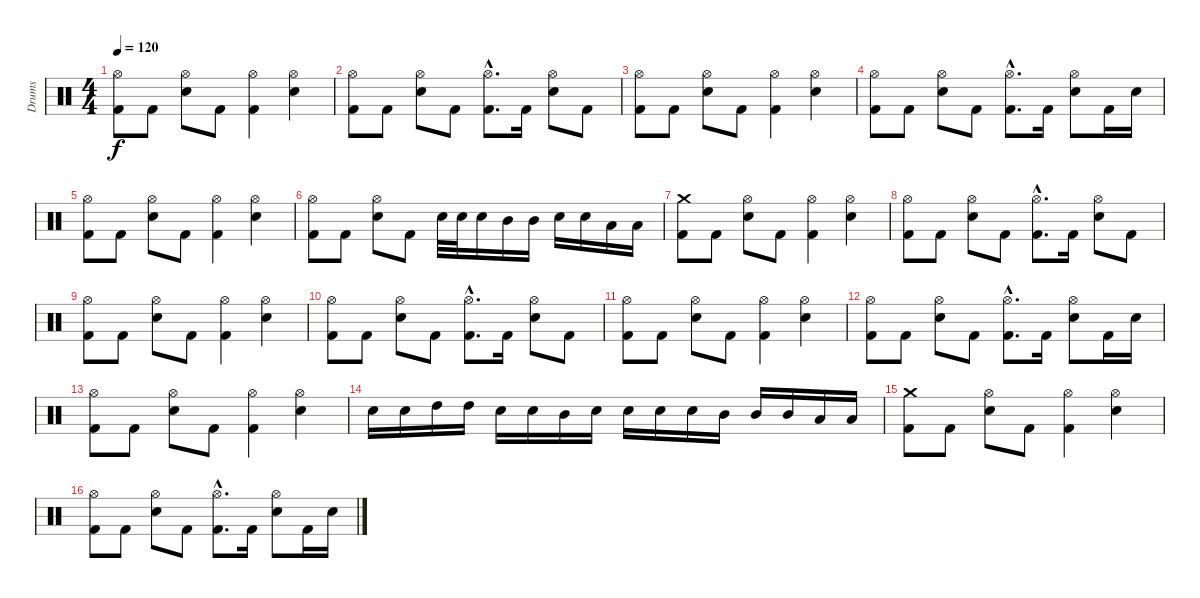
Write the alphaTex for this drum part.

\track ("Drums" "Drums") {instrument percussion}
\staff {score}
\articulation defaults
\ts (4 4)
\tempo 120
\clef neutral
\ks c
("Kick (hit) 2" "Hi-Hat (open)").8{dy f} "Kick (hit) 2".8 ("Electric Snare (hit)" "Hi-Hat (open)").8 "Kick (hit) 2".8 ("Kick (hit) 2" "Hi-Hat (open)").4 ("Electric Snare (hit)" "Hi-Hat (open)").4 |
("Kick (hit) 2" "Hi-Hat (open)").8 "Kick (hit) 2".8 ("Electric Snare (hit)" "Hi-Hat (open)").8 "Kick (hit) 2".8 ("Kick (hit) 2"{hac} "Hi-Hat (open)"{hac}).8{d} "Kick (hit) 2".16 ("Electric Snare (hit)" "Hi-Hat (open)").8 "Kick (hit) 2".8 |
("Kick (hit) 2" "Hi-Hat (open)").8 "Kick (hit) 2".8 ("Electric Snare (hit)" "Hi-Hat (open)").8 "Kick (hit) 2".8 ("Kick (hit) 2" "Hi-Hat (open)").4 ("Electric Snare (hit)" "Hi-Hat (open)").4 |
("Kick (hit) 2" "Hi-Hat (open)").8 "Kick (hit) 2".8 ("Electric Snare (hit)" "Hi-Hat (open)").8 "Kick (hit) 2".8 ("Kick (hit) 2"{hac} "Hi-Hat (open)"{hac}).8{d} "Kick (hit) 2".16 ("Electric Snare (hit)" "Hi-Hat (open)").8 "Kick (hit) 2".16 "Electric Snare (hit)".16 |
("Kick (hit) 2" "Hi-Hat (open)").8 "Kick (hit) 2".8 ("Electric Snare (hit)" "Hi-Hat (open)").8 "Kick (hit) 2".8 ("Kick (hit) 2" "Hi-Hat (open)").4 ("Electric Snare (hit)" "Hi-Hat (open)").4 |
("Kick (hit) 2" "Hi-Hat (open)").8 "Kick (hit) 2".8 ("Electric Snare (hit)" "Hi-Hat (open)").8 "Kick (hit) 2".8 "Electric Snare (hit)".32 "Electric Snare (hit)".32 "Electric Snare (hit)".16 "Mid Tom (hit)".16 "Mid Tom (hit)".16 "Electric Snare (hit)".16 "Electric Snare (hit)".16 "Low Tom (hit)".16 "Low Tom (hit)".16 |
("Kick (hit) 2" "Crash medium (hit)").8 "Kick (hit) 2".8 ("Electric Snare (hit)" "Hi-Hat (open)").8 "Kick (hit) 2".8 ("Kick (hit) 2" "Hi-Hat (open)").4 ("Electric Snare (hit)" "Hi-Hat (open)").4 |
("Kick (hit) 2" "Hi-Hat (open)").8 "Kick (hit) 2".8 ("Electric Snare (hit)" "Hi-Hat (open)").8 "Kick (hit) 2".8 ("Kick (hit) 2"{hac} "Hi-Hat (open)"{hac}).8{d} "Kick (hit) 2".16 ("Electric Snare (hit)" "Hi-Hat (open)").8 "Kick (hit) 2".8 |
("Kick (hit) 2" "Hi-Hat (open)").8 "Kick (hit) 2".8 ("Electric Snare (hit)" "Hi-Hat (open)").8 "Kick (hit) 2".8 ("Kick (hit) 2" "Hi-Hat (open)").4 ("Electric Snare (hit)" "Hi-Hat (open)").4 |
("Kick (hit) 2" "Hi-Hat (open)").8 "Kick (hit) 2".8 ("Electric Snare (hit)" "Hi-Hat (open)").8 "Kick (hit) 2".8 ("Kick (hit) 2"{hac} "Hi-Hat (open)"{hac}).8{d} "Kick (hit) 2".16 ("Electric Snare (hit)" "Hi-Hat (open)").8 "Kick (hit) 2".8 |
("Kick (hit) 2" "Hi-Hat (open)").8 "Kick (hit) 2".8 ("Electric Snare (hit)" "Hi-Hat (open)").8 "Kick (hit) 2".8 ("Kick (hit) 2" "Hi-Hat (open)").4 ("Electric Snare (hit)" "Hi-Hat (open)").4 |
("Kick (hit) 2" "Hi-Hat (open)").8 "Kick (hit) 2".8 ("Electric Snare (hit)" "Hi-Hat (open)").8 "Kick (hit) 2".8 ("Kick (hit) 2"{hac} "Hi-Hat (open)"{hac}).8{d} "Kick (hit) 2".16 ("Electric Snare (hit)" "Hi-Hat (open)").8 "Kick (hit) 2".16 "Electric Snare (hit)".16 |
("Kick (hit) 2" "Hi-Hat (open)").8 "Kick (hit) 2".8 ("Electric Snare (hit)" "Hi-Hat (open)").8 "Kick (hit) 2".8 ("Kick (hit) 2" "Hi-Hat (open)").4 ("Electric Snare (hit)" "Hi-Hat (open)").4 |
"Electric Snare (hit)".16 "Electric Snare (hit)".16 "High Tom (hit)".16 "High Tom (hit)".16 "Electric Snare (hit)".16 "Electric Snare (hit)".16 "Mid Tom (hit)".16 "Electric Snare (hit)".16 "Electric Snare (hit)".16 "Electric Snare (hit)".16 "Electric Snare (hit)".16 "Mid Tom (hit)".16 "Mid Tom (hit)".16 "Mid Tom (hit)".16 "Low Tom (hit)".16 "Low Tom (hit)".16 |
("Kick (hit) 2" "Crash medium (hit)").8 "Kick (hit) 2".8 ("Electric Snare (hit)" "Hi-Hat (open)").8 "Kick (hit) 2".8 ("Kick (hit) 2" "Hi-Hat (open)").4 ("Electric Snare (hit)" "Hi-Hat (open)").4 |
("Kick (hit) 2" "Hi-Hat (open)").8 "Kick (hit) 2".8 ("Electric Snare (hit)" "Hi-Hat (open)").8 "Kick (hit) 2".8 ("Kick (hit) 2"{hac} "Hi-Hat (open)"{hac}).8{d} "Kick (hit) 2".16 ("Electric Snare (hit)" "Hi-Hat (open)").8 "Kick (hit) 2".16 "Electric Snare (hit)".16
